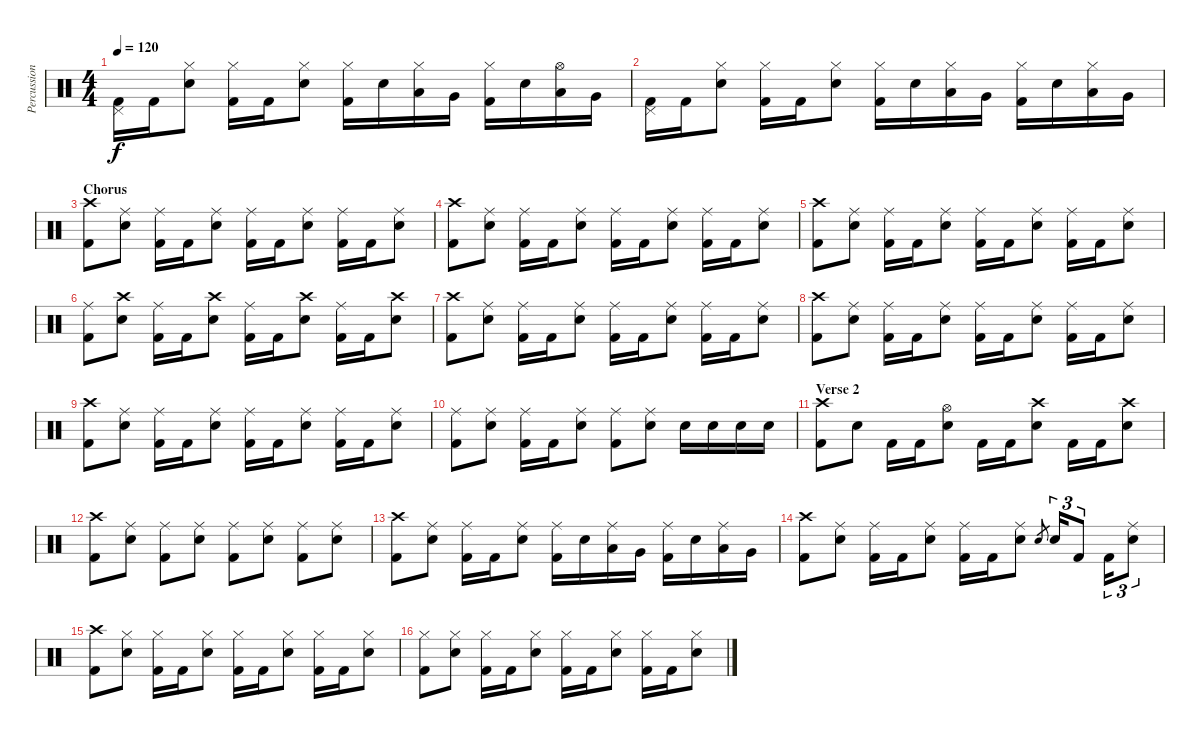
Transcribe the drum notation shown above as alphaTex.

\track ("Percussion" "Percussion") {instrument percussion}
\staff {score}
\articulation defaults
\ts (4 4)
\tempo 120
\clef neutral
\ks c
("Kick (hit) 2" "Pedal Hi-Hat (hit)").16{dy f} "Kick (hit) 2".16 ("Snare (hit) 2" "Hi-Hat (closed)").8 ("Kick (hit) 2" "Hi-Hat (closed)").16 "Kick (hit) 2".16 ("Snare (hit) 2" "Hi-Hat (closed)").8 ("Kick (hit) 2" "Hi-Hat (closed)").16 "Snare (hit) 2".16 ("Low Tom (hit)" "Hi-Hat (closed)").16 "Very Low Tom (hit)".16 ("Kick (hit) 2" "Hi-Hat (closed)").16 "Snare (hit) 2".16 ("Low Tom (hit)" "Hi-Hat (open)").16 "Very Low Tom (hit)".16 |
("Kick (hit) 2" "Pedal Hi-Hat (hit)").16 "Kick (hit) 2".16 ("Snare (hit) 2" "Hi-Hat (closed)").8 ("Kick (hit) 2" "Hi-Hat (closed)").16 "Kick (hit) 2".16 ("Snare (hit) 2" "Hi-Hat (closed)").8 ("Kick (hit) 2" "Hi-Hat (closed)").16 "Snare (hit) 2".16 ("Low Tom (hit)" "Hi-Hat (closed)").16 "Very Low Tom (hit)".16 ("Kick (hit) 2" "Hi-Hat (closed)").16 "Snare (hit) 2".16 ("Low Tom (hit)" "Hi-Hat (closed)").16 "Very Low Tom (hit)".16 |
\section ("" "Chorus")
("Kick (hit) 2" "Crash high (hit)").8 ("Snare (hit) 2" "Ride (middle)").8 ("Kick (hit) 2" "Ride (middle)").16 "Kick (hit) 2".16 ("Snare (hit) 2" "Ride (middle)").8 ("Kick (hit) 2" "Ride (middle)").16 "Kick (hit) 2".16 ("Snare (hit) 2" "Ride (middle)").8 ("Kick (hit) 2" "Ride (middle)").16 "Kick (hit) 2".16 ("Snare (hit) 2" "Ride (middle)").8 |
("Kick (hit) 2" "Crash high (hit)").8 ("Snare (hit) 2" "Ride (middle)").8 ("Kick (hit) 2" "Ride (middle)").16 "Kick (hit) 2".16 ("Snare (hit) 2" "Ride (middle)").8 ("Kick (hit) 2" "Ride (middle)").16 "Kick (hit) 2".16 ("Snare (hit) 2" "Ride (middle)").8 ("Kick (hit) 2" "Ride (middle)").16 "Kick (hit) 2".16 ("Snare (hit) 2" "Ride (middle)").8 |
("Kick (hit) 2" "Crash high (hit)").8 ("Snare (hit) 2" "Ride (middle)").8 ("Kick (hit) 2" "Ride (middle)").16 "Kick (hit) 2".16 ("Snare (hit) 2" "Ride (middle)").8 ("Kick (hit) 2" "Ride (middle)").16 "Kick (hit) 2".16 ("Snare (hit) 2" "Ride (middle)").8 ("Kick (hit) 2" "Ride (middle)").16 "Kick (hit) 2".16 ("Snare (hit) 2" "Ride (middle)").8 |
("Kick (hit) 2" "Ride (middle)").8 ("Snare (hit) 2" "Crash high (hit)").8 ("Kick (hit) 2" "Ride (middle)").16 "Kick (hit) 2".16 ("Snare (hit) 2" "Crash high (hit)").8 ("Kick (hit) 2" "Ride (middle)").16 "Kick (hit) 2".16 ("Snare (hit) 2" "Crash high (hit)").8 ("Kick (hit) 2" "Ride (middle)").16 "Kick (hit) 2".16 ("Snare (hit) 2" "Crash high (hit)").8 |
("Kick (hit) 2" "Crash high (hit)").8 ("Snare (hit) 2" "Ride (middle)").8 ("Kick (hit) 2" "Ride (middle)").16 "Kick (hit) 2".16 ("Snare (hit) 2" "Ride (middle)").8 ("Kick (hit) 2" "Ride (middle)").16 "Kick (hit) 2".16 ("Snare (hit) 2" "Ride (middle)").8 ("Kick (hit) 2" "Ride (middle)").16 "Kick (hit) 2".16 ("Snare (hit) 2" "Ride (middle)").8 |
("Kick (hit) 2" "Crash high (hit)").8 ("Snare (hit) 2" "Ride (middle)").8 ("Kick (hit) 2" "Ride (middle)").16 "Kick (hit) 2".16 ("Snare (hit) 2" "Ride (middle)").8 ("Kick (hit) 2" "Ride (middle)").16 "Kick (hit) 2".16 ("Snare (hit) 2" "Ride (middle)").8 ("Kick (hit) 2" "Ride (middle)").16 "Kick (hit) 2".16 ("Snare (hit) 2" "Ride (middle)").8 |
("Kick (hit) 2" "Crash high (hit)").8 ("Snare (hit) 2" "Ride (middle)").8 ("Kick (hit) 2" "Ride (middle)").16 "Kick (hit) 2".16 ("Snare (hit) 2" "Ride (middle)").8 ("Kick (hit) 2" "Ride (middle)").16 "Kick (hit) 2".16 ("Snare (hit) 2" "Ride (middle)").8 ("Kick (hit) 2" "Ride (middle)").16 "Kick (hit) 2".16 ("Snare (hit) 2" "Ride (middle)").8 |
("Kick (hit) 2" "Ride (middle)").8 ("Snare (hit) 2" "Ride (middle)").8 ("Kick (hit) 2" "Ride (middle)").16 "Kick (hit) 2".16 ("Snare (hit) 2" "Ride (middle)").8 ("Kick (hit) 2" "Ride (middle)").8 ("Snare (hit) 2" "Ride (middle)").8 "Snare (hit) 2".16 "Snare (hit) 2".16 "Snare (hit) 2".16 "Snare (hit) 2".16 |
\section ("" "Verse 2")
("Kick (hit) 2" "Crash high (hit)").8 "Snare (hit) 2".8 "Kick (hit) 2".16 "Kick (hit) 2".16 ("Snare (hit) 2" "Hi-Hat (open)").8 "Kick (hit) 2".16 "Kick (hit) 2".16 ("Snare (hit) 2" "Crash high (hit)").8 "Kick (hit) 2".16 "Kick (hit) 2".16 ("Snare (hit) 2" "Crash high (hit)").8 |
("Kick (hit) 2" "Crash high (hit)").8 ("Snare (hit) 2" "Ride (middle)").8 ("Kick (hit) 2" "Ride (middle)").8 ("Snare (hit) 2" "Ride (middle)").8 ("Kick (hit) 2" "Ride (middle)").8 ("Snare (hit) 2" "Ride (middle)").8 ("Kick (hit) 2" "Ride (middle)").8 ("Snare (hit) 2" "Ride (middle)").8 |
("Kick (hit) 2" "Crash high (hit)").8 ("Snare (hit) 2" "Ride (middle)").8 ("Kick (hit) 2" "Ride (middle)").16 "Kick (hit) 2".16 ("Snare (hit) 2" "Ride (middle)").8 ("Kick (hit) 2" "Ride (middle)").16 "Snare (hit) 2".16 ("Low Tom (hit)" "Ride (middle)").16 "Very Low Tom (hit)".16 ("Kick (hit) 2" "Ride (middle)").16 "Snare (hit) 2".16 ("Low Tom (hit)" "Ride (middle)").16 "Very Low Tom (hit)".16 |
("Kick (hit) 2" "Crash high (hit)").8 ("Snare (hit) 2" "Ride (middle)").8 ("Kick (hit) 2" "Ride (middle)").16 "Kick (hit) 2".16 ("Snare (hit) 2" "Ride (middle)").8 ("Kick (hit) 2" "Ride (middle)").16 "Kick (hit) 2".16 ("Snare (hit) 2" "Ride (middle)").8 "Snare (hit) 2".8{gr} "Snare (hit) 2".16{tu (3 2)} "Kick (hit) 2".8{tu (3 2)} "Kick (hit) 2".16{tu (3 2)} ("Snare (hit) 2" "Ride (middle)").8{tu (3 2)} |
("Kick (hit) 2" "Crash high (hit)").8 ("Snare (hit) 2" "Hi-Hat (closed)").8 ("Kick (hit) 2" "Hi-Hat (closed)").16 "Kick (hit) 2".16 ("Snare (hit) 2" "Hi-Hat (closed)").8 ("Kick (hit) 2" "Hi-Hat (closed)").16 "Kick (hit) 2".16 ("Snare (hit) 2" "Hi-Hat (closed)").8 ("Kick (hit) 2" "Hi-Hat (closed)").16 "Kick (hit) 2".16 ("Snare (hit) 2" "Hi-Hat (closed)").8 |
("Kick (hit) 2" "Hi-Hat (closed)").8 ("Snare (hit) 2" "Hi-Hat (closed)").8 ("Kick (hit) 2" "Hi-Hat (closed)").16 "Kick (hit) 2".16 ("Snare (hit) 2" "Hi-Hat (closed)").8 ("Kick (hit) 2" "Hi-Hat (closed)").16 "Kick (hit) 2".16 ("Snare (hit) 2" "Hi-Hat (closed)").8 ("Kick (hit) 2" "Hi-Hat (closed)").16 "Kick (hit) 2".16 ("Snare (hit) 2" "Hi-Hat (closed)").8
